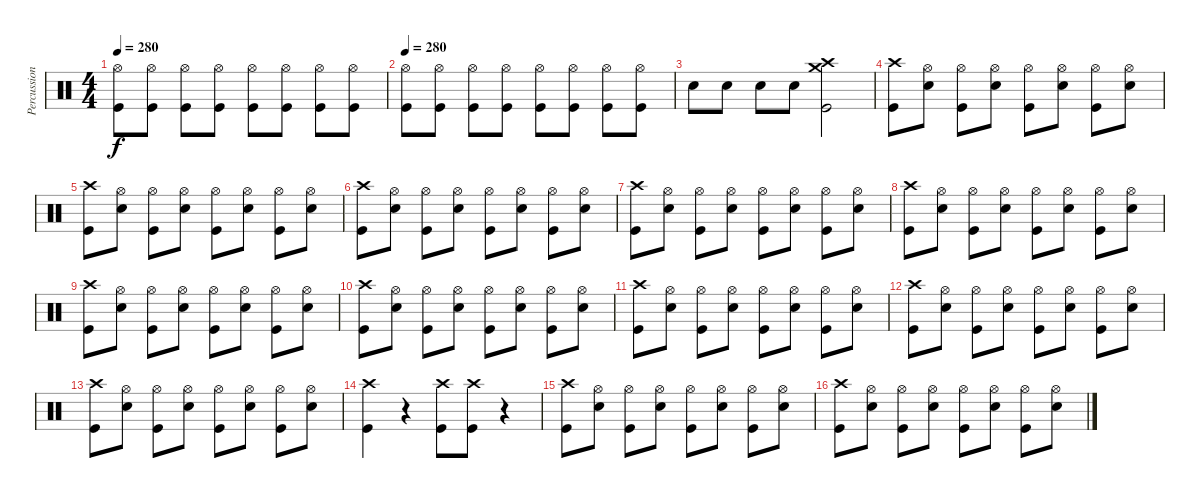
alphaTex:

\track ("Percussion" "Percussion") {instrument percussion}
\staff {score}
\articulation defaults
\ts (4 4)
\tempo 280
\clef neutral
\ks c
("Hi-Hat (open)" "Kick (hit)").8{dy f} ("Hi-Hat (open)" "Kick (hit)").8 ("Hi-Hat (open)" "Kick (hit)").8 ("Hi-Hat (open)" "Kick (hit)").8 ("Hi-Hat (open)" "Kick (hit)").8 ("Hi-Hat (open)" "Kick (hit)").8 ("Hi-Hat (open)" "Kick (hit)").8 ("Hi-Hat (open)" "Kick (hit)").8 |
\tempo 280
("Hi-Hat (open)" "Kick (hit)").8 ("Hi-Hat (open)" "Kick (hit)").8 ("Hi-Hat (open)" "Kick (hit)").8 ("Hi-Hat (open)" "Kick (hit)").8 ("Hi-Hat (open)" "Kick (hit)").8 ("Hi-Hat (open)" "Kick (hit)").8 ("Hi-Hat (open)" "Kick (hit)").8 ("Hi-Hat (open)" "Kick (hit)").8 |
"Snare (hit) 2".8 "Snare (hit) 2".8 "Snare (hit) 2".8 "Snare (hit) 2".8 ("Crash high (hit)" "Crash medium (hit)" "Kick (hit)").2 |
("Crash high (hit)" "Kick (hit)").8 ("Hi-Hat (open)" "Snare (hit) 2").8 ("Hi-Hat (open)" "Kick (hit)").8 ("Hi-Hat (open)" "Snare (hit) 2").8 ("Hi-Hat (open)" "Kick (hit)").8 ("Hi-Hat (open)" "Snare (hit) 2").8 ("Hi-Hat (open)" "Kick (hit)").8 ("Hi-Hat (open)" "Snare (hit) 2").8 |
("Crash high (hit)" "Kick (hit)").8 ("Hi-Hat (open)" "Snare (hit) 2").8 ("Hi-Hat (open)" "Kick (hit)").8 ("Hi-Hat (open)" "Snare (hit) 2").8 ("Hi-Hat (open)" "Kick (hit)").8 ("Hi-Hat (open)" "Snare (hit) 2").8 ("Hi-Hat (open)" "Kick (hit)").8 ("Hi-Hat (open)" "Snare (hit) 2").8 |
("Crash high (hit)" "Kick (hit)").8 ("Hi-Hat (open)" "Snare (hit) 2").8 ("Hi-Hat (open)" "Kick (hit)").8 ("Hi-Hat (open)" "Snare (hit) 2").8 ("Hi-Hat (open)" "Kick (hit)").8 ("Hi-Hat (open)" "Snare (hit) 2").8 ("Hi-Hat (open)" "Kick (hit)").8 ("Hi-Hat (open)" "Snare (hit) 2").8 |
("Crash high (hit)" "Kick (hit)").8 ("Hi-Hat (open)" "Snare (hit) 2").8 ("Hi-Hat (open)" "Kick (hit)").8 ("Hi-Hat (open)" "Snare (hit) 2").8 ("Hi-Hat (open)" "Kick (hit)").8 ("Hi-Hat (open)" "Snare (hit) 2").8 ("Hi-Hat (open)" "Kick (hit)").8 ("Hi-Hat (open)" "Snare (hit) 2").8 |
("Crash high (hit)" "Kick (hit)").8 ("Hi-Hat (open)" "Snare (hit) 2").8 ("Hi-Hat (open)" "Kick (hit)").8 ("Hi-Hat (open)" "Snare (hit) 2").8 ("Hi-Hat (open)" "Kick (hit)").8 ("Hi-Hat (open)" "Snare (hit) 2").8 ("Hi-Hat (open)" "Kick (hit)").8 ("Hi-Hat (open)" "Snare (hit) 2").8 |
("Crash high (hit)" "Kick (hit)").8 ("Hi-Hat (open)" "Snare (hit) 2").8 ("Hi-Hat (open)" "Kick (hit)").8 ("Hi-Hat (open)" "Snare (hit) 2").8 ("Hi-Hat (open)" "Kick (hit)").8 ("Hi-Hat (open)" "Snare (hit) 2").8 ("Hi-Hat (open)" "Kick (hit)").8 ("Hi-Hat (open)" "Snare (hit) 2").8 |
("Crash high (hit)" "Kick (hit)").8 ("Hi-Hat (open)" "Snare (hit) 2").8 ("Hi-Hat (open)" "Kick (hit)").8 ("Hi-Hat (open)" "Snare (hit) 2").8 ("Hi-Hat (open)" "Kick (hit)").8 ("Hi-Hat (open)" "Snare (hit) 2").8 ("Hi-Hat (open)" "Kick (hit)").8 ("Hi-Hat (open)" "Snare (hit) 2").8 |
("Crash high (hit)" "Kick (hit)").8 ("Hi-Hat (open)" "Snare (hit) 2").8 ("Hi-Hat (open)" "Kick (hit)").8 ("Hi-Hat (open)" "Snare (hit) 2").8 ("Hi-Hat (open)" "Kick (hit)").8 ("Hi-Hat (open)" "Snare (hit) 2").8 ("Hi-Hat (open)" "Kick (hit)").8 ("Hi-Hat (open)" "Snare (hit) 2").8 |
("Crash high (hit)" "Kick (hit)").8 ("Hi-Hat (open)" "Snare (hit) 2").8 ("Hi-Hat (open)" "Kick (hit)").8 ("Hi-Hat (open)" "Snare (hit) 2").8 ("Hi-Hat (open)" "Kick (hit)").8 ("Hi-Hat (open)" "Snare (hit) 2").8 ("Hi-Hat (open)" "Kick (hit)").8 ("Hi-Hat (open)" "Snare (hit) 2").8 |
("Crash high (hit)" "Kick (hit)").8 ("Hi-Hat (open)" "Snare (hit) 2").8 ("Hi-Hat (open)" "Kick (hit)").8 ("Hi-Hat (open)" "Snare (hit) 2").8 ("Hi-Hat (open)" "Kick (hit)").8 ("Hi-Hat (open)" "Snare (hit) 2").8 ("Hi-Hat (open)" "Kick (hit)").8 ("Hi-Hat (open)" "Snare (hit) 2").8 |
("Crash high (hit)" "Kick (hit)").4 r.4 ("Crash high (hit)" "Kick (hit)").8 ("Crash high (hit)" "Kick (hit)").8 r.4 |
("Crash high (hit)" "Kick (hit)").8 ("Hi-Hat (open)" "Snare (hit) 2").8 ("Hi-Hat (open)" "Kick (hit)").8 ("Hi-Hat (open)" "Snare (hit) 2").8 ("Hi-Hat (open)" "Kick (hit)").8 ("Hi-Hat (open)" "Snare (hit) 2").8 ("Hi-Hat (open)" "Kick (hit)").8 ("Hi-Hat (open)" "Snare (hit) 2").8 |
("Crash high (hit)" "Kick (hit)").8 ("Hi-Hat (open)" "Snare (hit) 2").8 ("Hi-Hat (open)" "Kick (hit)").8 ("Hi-Hat (open)" "Snare (hit) 2").8 ("Hi-Hat (open)" "Kick (hit)").8 ("Hi-Hat (open)" "Snare (hit) 2").8 ("Hi-Hat (open)" "Kick (hit)").8 ("Hi-Hat (open)" "Snare (hit) 2").8
